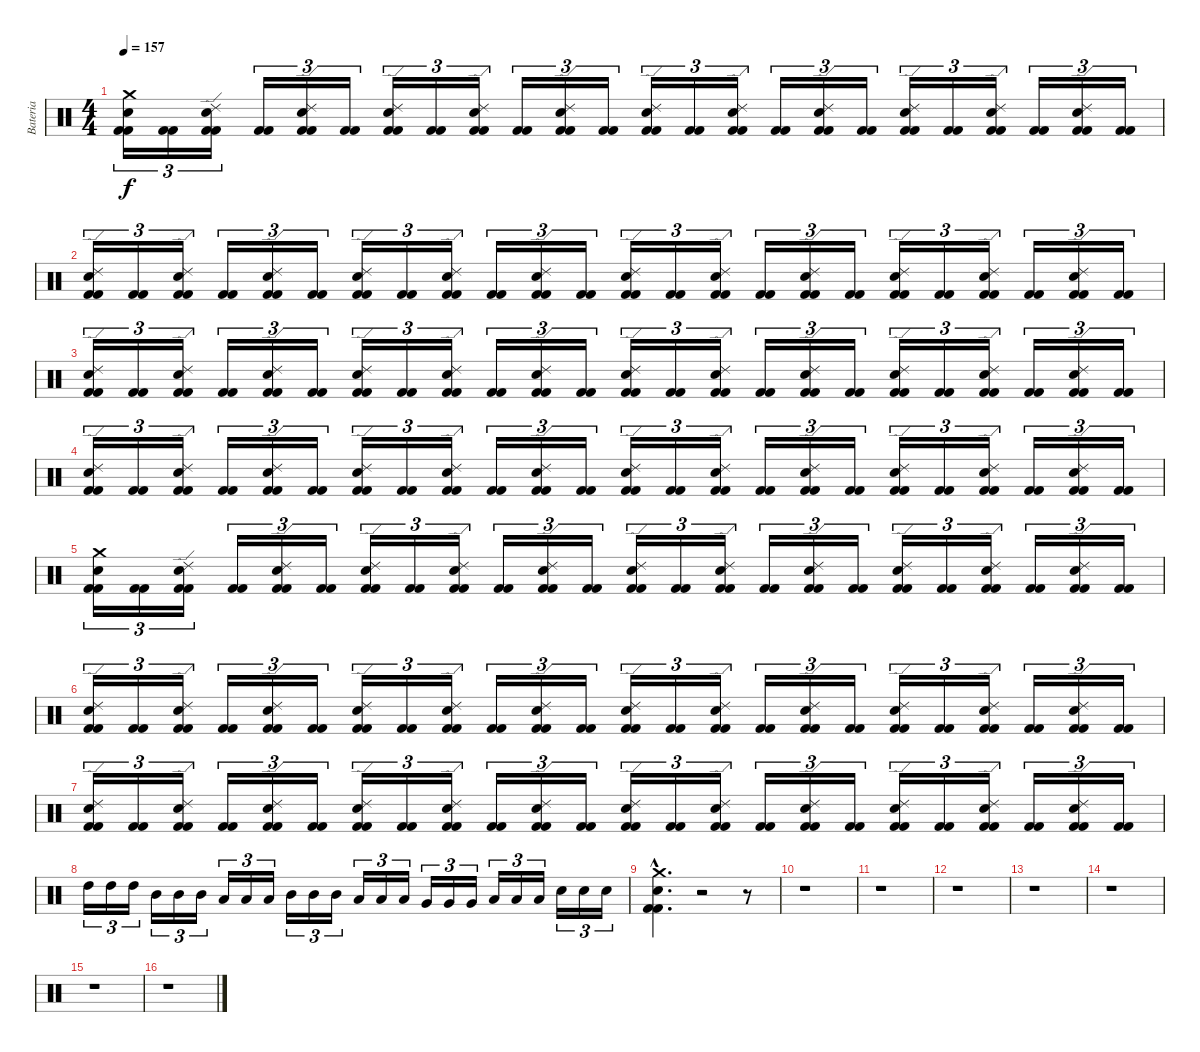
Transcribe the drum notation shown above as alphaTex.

\track ("Bateria" "Bateria") {instrument percussion}
\staff {score}
\articulation defaults
\ts (4 4)
\tempo 157
\clef neutral
\ks c
("Kick (hit) 2" "Kick (hit) 2" "Snare (hit) 2" "Crash medium (hit)").16{tu (3 2) dy f} ("Kick (hit) 2" "Kick (hit) 2").16{tu (3 2)} ("Kick (hit) 2" "Kick (hit) 2" "Snare (hit) 2" "Ride (edge) 2").16{tu (3 2)} ("Kick (hit) 2" "Kick (hit) 2").16{tu (3 2)} ("Kick (hit) 2" "Kick (hit) 2" "Snare (hit) 2" "Ride (edge) 2").16{tu (3 2)} ("Kick (hit) 2" "Kick (hit) 2").16{tu (3 2)} ("Kick (hit) 2" "Kick (hit) 2" "Snare (hit) 2" "Ride (edge) 2").16{tu (3 2)} ("Kick (hit) 2" "Kick (hit) 2").16{tu (3 2)} ("Kick (hit) 2" "Kick (hit) 2" "Snare (hit) 2" "Ride (edge) 2").16{tu (3 2)} ("Kick (hit) 2" "Kick (hit) 2").16{tu (3 2)} ("Kick (hit) 2" "Kick (hit) 2" "Snare (hit) 2" "Ride (edge) 2").16{tu (3 2)} ("Kick (hit) 2" "Kick (hit) 2").16{tu (3 2)} ("Kick (hit) 2" "Kick (hit) 2" "Snare (hit) 2" "Ride (edge) 2").16{tu (3 2)} ("Kick (hit) 2" "Kick (hit) 2").16{tu (3 2)} ("Kick (hit) 2" "Kick (hit) 2" "Snare (hit) 2" "Ride (edge) 2").16{tu (3 2)} ("Kick (hit) 2" "Kick (hit) 2").16{tu (3 2)} ("Kick (hit) 2" "Kick (hit) 2" "Snare (hit) 2" "Ride (edge) 2").16{tu (3 2)} ("Kick (hit) 2" "Kick (hit) 2").16{tu (3 2)} ("Kick (hit) 2" "Kick (hit) 2" "Snare (hit) 2" "Ride (edge) 2").16{tu (3 2)} ("Kick (hit) 2" "Kick (hit) 2").16{tu (3 2)} ("Kick (hit) 2" "Kick (hit) 2" "Snare (hit) 2" "Ride (edge) 2").16{tu (3 2)} ("Kick (hit) 2" "Kick (hit) 2").16{tu (3 2)} ("Kick (hit) 2" "Kick (hit) 2" "Snare (hit) 2" "Ride (edge) 2").16{tu (3 2)} ("Kick (hit) 2" "Kick (hit) 2").16{tu (3 2)} |
("Kick (hit) 2" "Kick (hit) 2" "Snare (hit) 2" "Ride (edge) 2").16{tu (3 2)} ("Kick (hit) 2" "Kick (hit) 2").16{tu (3 2)} ("Kick (hit) 2" "Kick (hit) 2" "Snare (hit) 2" "Ride (edge) 2").16{tu (3 2)} ("Kick (hit) 2" "Kick (hit) 2").16{tu (3 2)} ("Kick (hit) 2" "Kick (hit) 2" "Snare (hit) 2" "Ride (edge) 2").16{tu (3 2)} ("Kick (hit) 2" "Kick (hit) 2").16{tu (3 2)} ("Kick (hit) 2" "Kick (hit) 2" "Snare (hit) 2" "Ride (edge) 2").16{tu (3 2)} ("Kick (hit) 2" "Kick (hit) 2").16{tu (3 2)} ("Kick (hit) 2" "Kick (hit) 2" "Snare (hit) 2" "Ride (edge) 2").16{tu (3 2)} ("Kick (hit) 2" "Kick (hit) 2").16{tu (3 2)} ("Kick (hit) 2" "Kick (hit) 2" "Snare (hit) 2" "Ride (edge) 2").16{tu (3 2)} ("Kick (hit) 2" "Kick (hit) 2").16{tu (3 2)} ("Kick (hit) 2" "Kick (hit) 2" "Snare (hit) 2" "Ride (edge) 2").16{tu (3 2)} ("Kick (hit) 2" "Kick (hit) 2").16{tu (3 2)} ("Kick (hit) 2" "Kick (hit) 2" "Snare (hit) 2" "Ride (edge) 2").16{tu (3 2)} ("Kick (hit) 2" "Kick (hit) 2").16{tu (3 2)} ("Kick (hit) 2" "Kick (hit) 2" "Snare (hit) 2" "Ride (edge) 2").16{tu (3 2)} ("Kick (hit) 2" "Kick (hit) 2").16{tu (3 2)} ("Kick (hit) 2" "Kick (hit) 2" "Snare (hit) 2" "Ride (edge) 2").16{tu (3 2)} ("Kick (hit) 2" "Kick (hit) 2").16{tu (3 2)} ("Kick (hit) 2" "Kick (hit) 2" "Snare (hit) 2" "Ride (edge) 2").16{tu (3 2)} ("Kick (hit) 2" "Kick (hit) 2").16{tu (3 2)} ("Kick (hit) 2" "Kick (hit) 2" "Snare (hit) 2" "Ride (edge) 2").16{tu (3 2)} ("Kick (hit) 2" "Kick (hit) 2").16{tu (3 2)} |
("Kick (hit) 2" "Kick (hit) 2" "Snare (hit) 2" "Ride (edge) 2").16{tu (3 2)} ("Kick (hit) 2" "Kick (hit) 2").16{tu (3 2)} ("Kick (hit) 2" "Kick (hit) 2" "Snare (hit) 2" "Ride (edge) 2").16{tu (3 2)} ("Kick (hit) 2" "Kick (hit) 2").16{tu (3 2)} ("Kick (hit) 2" "Kick (hit) 2" "Snare (hit) 2" "Ride (edge) 2").16{tu (3 2)} ("Kick (hit) 2" "Kick (hit) 2").16{tu (3 2)} ("Kick (hit) 2" "Kick (hit) 2" "Snare (hit) 2" "Ride (edge) 2").16{tu (3 2)} ("Kick (hit) 2" "Kick (hit) 2").16{tu (3 2)} ("Kick (hit) 2" "Kick (hit) 2" "Snare (hit) 2" "Ride (edge) 2").16{tu (3 2)} ("Kick (hit) 2" "Kick (hit) 2").16{tu (3 2)} ("Kick (hit) 2" "Kick (hit) 2" "Snare (hit) 2" "Ride (edge) 2").16{tu (3 2)} ("Kick (hit) 2" "Kick (hit) 2").16{tu (3 2)} ("Kick (hit) 2" "Kick (hit) 2" "Snare (hit) 2" "Ride (edge) 2").16{tu (3 2)} ("Kick (hit) 2" "Kick (hit) 2").16{tu (3 2)} ("Kick (hit) 2" "Kick (hit) 2" "Snare (hit) 2" "Ride (edge) 2").16{tu (3 2)} ("Kick (hit) 2" "Kick (hit) 2").16{tu (3 2)} ("Kick (hit) 2" "Kick (hit) 2" "Snare (hit) 2" "Ride (edge) 2").16{tu (3 2)} ("Kick (hit) 2" "Kick (hit) 2").16{tu (3 2)} ("Kick (hit) 2" "Kick (hit) 2" "Snare (hit) 2" "Ride (edge) 2").16{tu (3 2)} ("Kick (hit) 2" "Kick (hit) 2").16{tu (3 2)} ("Kick (hit) 2" "Kick (hit) 2" "Snare (hit) 2" "Ride (edge) 2").16{tu (3 2)} ("Kick (hit) 2" "Kick (hit) 2").16{tu (3 2)} ("Kick (hit) 2" "Kick (hit) 2" "Snare (hit) 2" "Ride (edge) 2").16{tu (3 2)} ("Kick (hit) 2" "Kick (hit) 2").16{tu (3 2)} |
("Kick (hit) 2" "Kick (hit) 2" "Snare (hit) 2" "Ride (edge) 2").16{tu (3 2)} ("Kick (hit) 2" "Kick (hit) 2").16{tu (3 2)} ("Kick (hit) 2" "Kick (hit) 2" "Snare (hit) 2" "Ride (edge) 2").16{tu (3 2)} ("Kick (hit) 2" "Kick (hit) 2").16{tu (3 2)} ("Kick (hit) 2" "Kick (hit) 2" "Snare (hit) 2" "Ride (edge) 2").16{tu (3 2)} ("Kick (hit) 2" "Kick (hit) 2").16{tu (3 2)} ("Kick (hit) 2" "Kick (hit) 2" "Snare (hit) 2" "Ride (edge) 2").16{tu (3 2)} ("Kick (hit) 2" "Kick (hit) 2").16{tu (3 2)} ("Kick (hit) 2" "Kick (hit) 2" "Snare (hit) 2" "Ride (edge) 2").16{tu (3 2)} ("Kick (hit) 2" "Kick (hit) 2").16{tu (3 2)} ("Kick (hit) 2" "Kick (hit) 2" "Snare (hit) 2" "Ride (edge) 2").16{tu (3 2)} ("Kick (hit) 2" "Kick (hit) 2").16{tu (3 2)} ("Kick (hit) 2" "Kick (hit) 2" "Snare (hit) 2" "Ride (edge) 2").16{tu (3 2)} ("Kick (hit) 2" "Kick (hit) 2").16{tu (3 2)} ("Kick (hit) 2" "Kick (hit) 2" "Snare (hit) 2" "Ride (edge) 2").16{tu (3 2)} ("Kick (hit) 2" "Kick (hit) 2").16{tu (3 2)} ("Kick (hit) 2" "Kick (hit) 2" "Snare (hit) 2" "Ride (edge) 2").16{tu (3 2)} ("Kick (hit) 2" "Kick (hit) 2").16{tu (3 2)} ("Kick (hit) 2" "Kick (hit) 2" "Snare (hit) 2" "Ride (edge) 2").16{tu (3 2)} ("Kick (hit) 2" "Kick (hit) 2").16{tu (3 2)} ("Kick (hit) 2" "Kick (hit) 2" "Snare (hit) 2" "Ride (edge) 2").16{tu (3 2)} ("Kick (hit) 2" "Kick (hit) 2").16{tu (3 2)} ("Kick (hit) 2" "Kick (hit) 2" "Snare (hit) 2" "Ride (edge) 2").16{tu (3 2)} ("Kick (hit) 2" "Kick (hit) 2").16{tu (3 2)} |
("Kick (hit) 2" "Kick (hit) 2" "Snare (hit) 2" "Crash medium (hit)").16{tu (3 2)} ("Kick (hit) 2" "Kick (hit) 2").16{tu (3 2)} ("Kick (hit) 2" "Kick (hit) 2" "Snare (hit) 2" "Ride (edge) 2").16{tu (3 2)} ("Kick (hit) 2" "Kick (hit) 2").16{tu (3 2)} ("Kick (hit) 2" "Kick (hit) 2" "Snare (hit) 2" "Ride (edge) 2").16{tu (3 2)} ("Kick (hit) 2" "Kick (hit) 2").16{tu (3 2)} ("Kick (hit) 2" "Kick (hit) 2" "Snare (hit) 2" "Ride (edge) 2").16{tu (3 2)} ("Kick (hit) 2" "Kick (hit) 2").16{tu (3 2)} ("Kick (hit) 2" "Kick (hit) 2" "Snare (hit) 2" "Ride (edge) 2").16{tu (3 2)} ("Kick (hit) 2" "Kick (hit) 2").16{tu (3 2)} ("Kick (hit) 2" "Kick (hit) 2" "Snare (hit) 2" "Ride (edge) 2").16{tu (3 2)} ("Kick (hit) 2" "Kick (hit) 2").16{tu (3 2)} ("Kick (hit) 2" "Kick (hit) 2" "Snare (hit) 2" "Ride (edge) 2").16{tu (3 2)} ("Kick (hit) 2" "Kick (hit) 2").16{tu (3 2)} ("Kick (hit) 2" "Kick (hit) 2" "Snare (hit) 2" "Ride (edge) 2").16{tu (3 2)} ("Kick (hit) 2" "Kick (hit) 2").16{tu (3 2)} ("Kick (hit) 2" "Kick (hit) 2" "Snare (hit) 2" "Ride (edge) 2").16{tu (3 2)} ("Kick (hit) 2" "Kick (hit) 2").16{tu (3 2)} ("Kick (hit) 2" "Kick (hit) 2" "Snare (hit) 2" "Ride (edge) 2").16{tu (3 2)} ("Kick (hit) 2" "Kick (hit) 2").16{tu (3 2)} ("Kick (hit) 2" "Kick (hit) 2" "Snare (hit) 2" "Ride (edge) 2").16{tu (3 2)} ("Kick (hit) 2" "Kick (hit) 2").16{tu (3 2)} ("Kick (hit) 2" "Kick (hit) 2" "Snare (hit) 2" "Ride (edge) 2").16{tu (3 2)} ("Kick (hit) 2" "Kick (hit) 2").16{tu (3 2)} |
("Kick (hit) 2" "Kick (hit) 2" "Snare (hit) 2" "Ride (edge) 2").16{tu (3 2)} ("Kick (hit) 2" "Kick (hit) 2").16{tu (3 2)} ("Kick (hit) 2" "Kick (hit) 2" "Snare (hit) 2" "Ride (edge) 2").16{tu (3 2)} ("Kick (hit) 2" "Kick (hit) 2").16{tu (3 2)} ("Kick (hit) 2" "Kick (hit) 2" "Snare (hit) 2" "Ride (edge) 2").16{tu (3 2)} ("Kick (hit) 2" "Kick (hit) 2").16{tu (3 2)} ("Kick (hit) 2" "Kick (hit) 2" "Snare (hit) 2" "Ride (edge) 2").16{tu (3 2)} ("Kick (hit) 2" "Kick (hit) 2").16{tu (3 2)} ("Kick (hit) 2" "Kick (hit) 2" "Snare (hit) 2" "Ride (edge) 2").16{tu (3 2)} ("Kick (hit) 2" "Kick (hit) 2").16{tu (3 2)} ("Kick (hit) 2" "Kick (hit) 2" "Snare (hit) 2" "Ride (edge) 2").16{tu (3 2)} ("Kick (hit) 2" "Kick (hit) 2").16{tu (3 2)} ("Kick (hit) 2" "Kick (hit) 2" "Snare (hit) 2" "Ride (edge) 2").16{tu (3 2)} ("Kick (hit) 2" "Kick (hit) 2").16{tu (3 2)} ("Kick (hit) 2" "Kick (hit) 2" "Snare (hit) 2" "Ride (edge) 2").16{tu (3 2)} ("Kick (hit) 2" "Kick (hit) 2").16{tu (3 2)} ("Kick (hit) 2" "Kick (hit) 2" "Snare (hit) 2" "Ride (edge) 2").16{tu (3 2)} ("Kick (hit) 2" "Kick (hit) 2").16{tu (3 2)} ("Kick (hit) 2" "Kick (hit) 2" "Snare (hit) 2" "Ride (edge) 2").16{tu (3 2)} ("Kick (hit) 2" "Kick (hit) 2").16{tu (3 2)} ("Kick (hit) 2" "Kick (hit) 2" "Snare (hit) 2" "Ride (edge) 2").16{tu (3 2)} ("Kick (hit) 2" "Kick (hit) 2").16{tu (3 2)} ("Kick (hit) 2" "Kick (hit) 2" "Snare (hit) 2" "Ride (edge) 2").16{tu (3 2)} ("Kick (hit) 2" "Kick (hit) 2").16{tu (3 2)} |
("Kick (hit) 2" "Kick (hit) 2" "Snare (hit) 2" "Ride (edge) 2").16{tu (3 2)} ("Kick (hit) 2" "Kick (hit) 2").16{tu (3 2)} ("Kick (hit) 2" "Kick (hit) 2" "Snare (hit) 2" "Ride (edge) 2").16{tu (3 2)} ("Kick (hit) 2" "Kick (hit) 2").16{tu (3 2)} ("Kick (hit) 2" "Kick (hit) 2" "Snare (hit) 2" "Ride (edge) 2").16{tu (3 2)} ("Kick (hit) 2" "Kick (hit) 2").16{tu (3 2)} ("Kick (hit) 2" "Kick (hit) 2" "Snare (hit) 2" "Ride (edge) 2").16{tu (3 2)} ("Kick (hit) 2" "Kick (hit) 2").16{tu (3 2)} ("Kick (hit) 2" "Kick (hit) 2" "Snare (hit) 2" "Ride (edge) 2").16{tu (3 2)} ("Kick (hit) 2" "Kick (hit) 2").16{tu (3 2)} ("Kick (hit) 2" "Kick (hit) 2" "Snare (hit) 2" "Ride (edge) 2").16{tu (3 2)} ("Kick (hit) 2" "Kick (hit) 2").16{tu (3 2)} ("Kick (hit) 2" "Kick (hit) 2" "Snare (hit) 2" "Ride (edge) 2").16{tu (3 2)} ("Kick (hit) 2" "Kick (hit) 2").16{tu (3 2)} ("Kick (hit) 2" "Kick (hit) 2" "Snare (hit) 2" "Ride (edge) 2").16{tu (3 2)} ("Kick (hit) 2" "Kick (hit) 2").16{tu (3 2)} ("Kick (hit) 2" "Kick (hit) 2" "Snare (hit) 2" "Ride (edge) 2").16{tu (3 2)} ("Kick (hit) 2" "Kick (hit) 2").16{tu (3 2)} ("Kick (hit) 2" "Kick (hit) 2" "Snare (hit) 2" "Ride (edge) 2").16{tu (3 2)} ("Kick (hit) 2" "Kick (hit) 2").16{tu (3 2)} ("Kick (hit) 2" "Kick (hit) 2" "Snare (hit) 2" "Ride (edge) 2").16{tu (3 2)} ("Kick (hit) 2" "Kick (hit) 2").16{tu (3 2)} ("Kick (hit) 2" "Kick (hit) 2" "Snare (hit) 2" "Ride (edge) 2").16{tu (3 2)} ("Kick (hit) 2" "Kick (hit) 2").16{tu (3 2)} |
"High Tom (hit)".16{tu (3 2)} "High Tom (hit)".16{tu (3 2)} "High Tom (hit)".16{tu (3 2)} "Mid Tom (hit)".16{tu (3 2)} "Mid Tom (hit)".16{tu (3 2)} "Mid Tom (hit)".16{tu (3 2)} "Low Tom (hit)".16{tu (3 2)} "Low Tom (hit)".16{tu (3 2)} "Low Tom (hit)".16{tu (3 2)} "Mid Tom (hit)".16{tu (3 2)} "Mid Tom (hit)".16{tu (3 2)} "Mid Tom (hit)".16{tu (3 2)} "Low Tom (hit)".16{tu (3 2)} "Low Tom (hit)".16{tu (3 2)} "Low Tom (hit)".16{tu (3 2)} "Very Low Tom (hit)".16{tu (3 2)} "Very Low Tom (hit)".16{tu (3 2)} "Very Low Tom (hit)".16{tu (3 2)} "Low Tom (hit)".16{tu (3 2)} "Low Tom (hit)".16{tu (3 2)} "Low Tom (hit)".16{tu (3 2)} "Snare (hit) 2".16{tu (3 2)} "Snare (hit) 2".16{tu (3 2)} "Snare (hit) 2".16{tu (3 2)} |
("Kick (hit) 2"{hac} "Kick (hit) 2"{hac} "Snare (hit) 2"{hac} "Crash medium (hit)"{hac}).4{d} r.2 r.8 |
r.1 |
r.1 |
r.1 |
r.1 |
r.1 |
r.1 |
r.1
